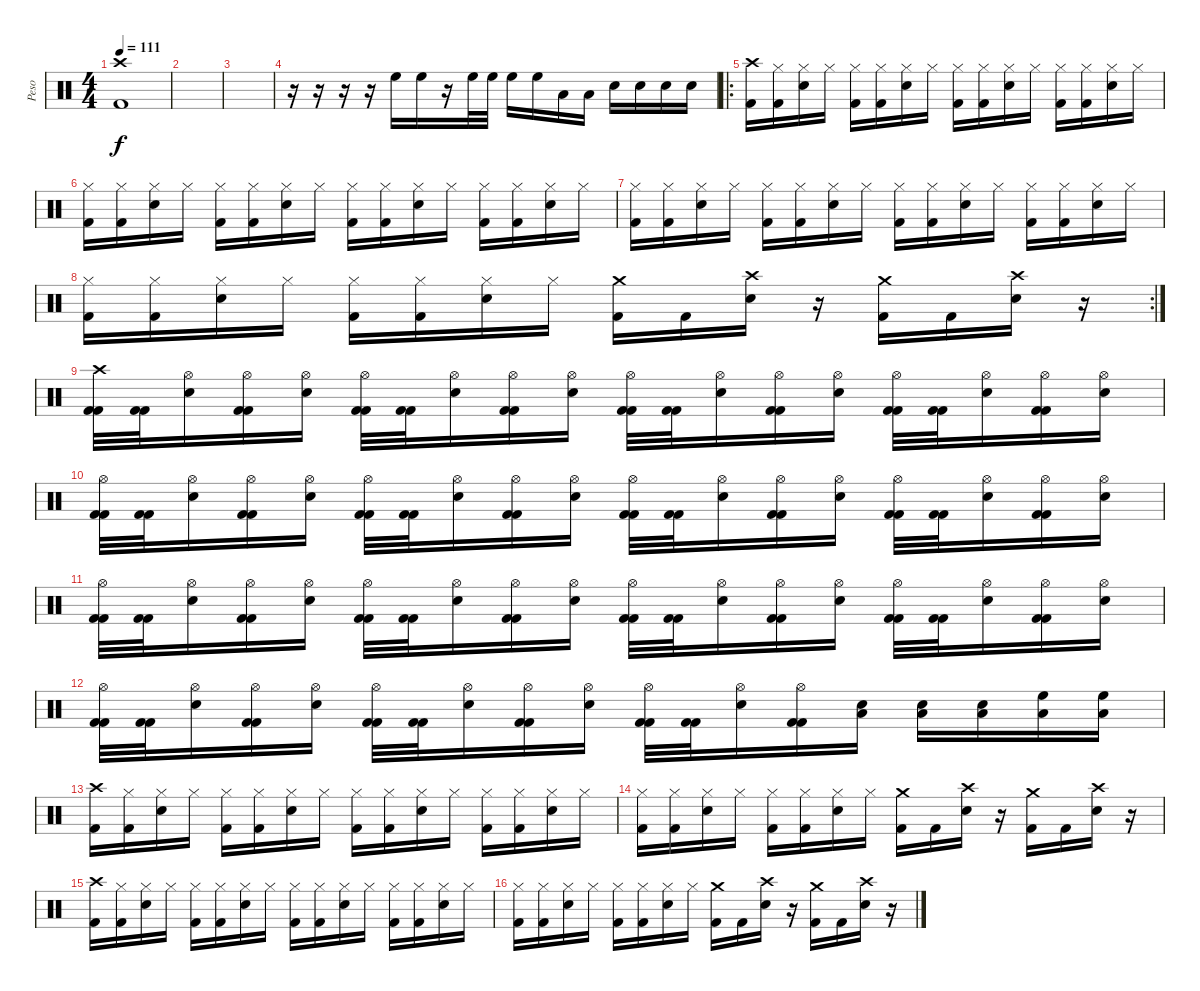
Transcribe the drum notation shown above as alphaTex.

\track ("Peso" "Peso") {instrument percussion}
\staff {score}
\articulation defaults
\ts (4 4)
\tempo 111
\clef neutral
\ks c
("Crash high (hit)" "Kick (hit) 2").1{dy f} |
|
|
r.16 r.16 r.16 r.16 "High Floor Tom (hit)".16 "High Floor Tom (hit)".16 r.16 "High Floor Tom (hit)".32 "High Floor Tom (hit)".32 "High Floor Tom (hit)".16 "High Floor Tom (hit)".16 "Low Floor Tom (hit)".16 "Low Floor Tom (hit)".16 "Snare (hit) 2".16 "Snare (hit) 2".16 "Snare (hit) 2".16 "Snare (hit) 2".16 |
\ro
("Crash high (hit)" "Kick (hit) 2").16 ("Hi-Hat (closed)" "Kick (hit) 2").16 ("Hi-Hat (closed)" "Snare (hit) 2").16 "Hi-Hat (closed)".16 ("Hi-Hat (closed)" "Kick (hit) 2").16 ("Hi-Hat (closed)" "Kick (hit) 2").16 ("Hi-Hat (closed)" "Snare (hit) 2").16 "Hi-Hat (closed)".16 ("Hi-Hat (closed)" "Kick (hit) 2").16 ("Hi-Hat (closed)" "Kick (hit) 2").16 ("Hi-Hat (closed)" "Snare (hit) 2").16 "Hi-Hat (closed)".16 ("Hi-Hat (closed)" "Kick (hit) 2").16 ("Hi-Hat (closed)" "Kick (hit) 2").16 ("Hi-Hat (closed)" "Snare (hit) 2").16 "Hi-Hat (closed)".16 |
("Hi-Hat (closed)" "Kick (hit) 2").16 ("Hi-Hat (closed)" "Kick (hit) 2").16 ("Hi-Hat (closed)" "Snare (hit) 2").16 "Hi-Hat (closed)".16 ("Hi-Hat (closed)" "Kick (hit) 2").16 ("Hi-Hat (closed)" "Kick (hit) 2").16 ("Hi-Hat (closed)" "Snare (hit) 2").16 "Hi-Hat (closed)".16 ("Hi-Hat (closed)" "Kick (hit) 2").16 ("Hi-Hat (closed)" "Kick (hit) 2").16 ("Hi-Hat (closed)" "Snare (hit) 2").16 "Hi-Hat (closed)".16 ("Hi-Hat (closed)" "Kick (hit) 2").16 ("Hi-Hat (closed)" "Kick (hit) 2").16 ("Hi-Hat (closed)" "Snare (hit) 2").16 "Hi-Hat (closed)".16 |
("Hi-Hat (closed)" "Kick (hit) 2").16 ("Hi-Hat (closed)" "Kick (hit) 2").16 ("Hi-Hat (closed)" "Snare (hit) 2").16 "Hi-Hat (closed)".16 ("Hi-Hat (closed)" "Kick (hit) 2").16 ("Hi-Hat (closed)" "Kick (hit) 2").16 ("Hi-Hat (closed)" "Snare (hit) 2").16 "Hi-Hat (closed)".16 ("Hi-Hat (closed)" "Kick (hit) 2").16 ("Hi-Hat (closed)" "Kick (hit) 2").16 ("Hi-Hat (closed)" "Snare (hit) 2").16 "Hi-Hat (closed)".16 ("Hi-Hat (closed)" "Kick (hit) 2").16 ("Hi-Hat (closed)" "Kick (hit) 2").16 ("Hi-Hat (closed)" "Snare (hit) 2").16 "Hi-Hat (closed)".16 |
\rc 2
("Hi-Hat (closed)" "Kick (hit) 2").16 ("Hi-Hat (closed)" "Kick (hit) 2").16 ("Hi-Hat (closed)" "Snare (hit) 2").16 "Hi-Hat (closed)".16 ("Hi-Hat (closed)" "Kick (hit) 2").16 ("Hi-Hat (closed)" "Kick (hit) 2").16 ("Hi-Hat (closed)" "Snare (hit) 2").16 "Hi-Hat (closed)".16 ("Crash medium (hit)" "Kick (hit) 2").16 "Kick (hit) 2".16 ("Crash high (hit)" "Snare (hit) 2").16 r.16 ("Crash medium (hit)" "Kick (hit) 2").16 "Kick (hit) 2".16 ("Crash high (hit)" "Snare (hit) 2").16 r.16 |
("Crash high (hit)" "Kick (hit) 2" "Kick (hit) 2").32 ("Kick (hit) 2" "Kick (hit) 2").32 ("Hi-Hat (open)" "Snare (hit) 2").16 ("Hi-Hat (open)" "Kick (hit) 2" "Kick (hit) 2").16 ("Hi-Hat (open)" "Snare (hit) 2").16 ("Hi-Hat (open)" "Kick (hit) 2" "Kick (hit) 2").32 ("Kick (hit) 2" "Kick (hit) 2").32 ("Hi-Hat (open)" "Snare (hit) 2").16 ("Hi-Hat (open)" "Kick (hit) 2" "Kick (hit) 2").16 ("Hi-Hat (open)" "Snare (hit) 2").16 ("Hi-Hat (open)" "Kick (hit) 2" "Kick (hit) 2").32 ("Kick (hit) 2" "Kick (hit) 2").32 ("Hi-Hat (open)" "Snare (hit) 2").16 ("Hi-Hat (open)" "Kick (hit) 2" "Kick (hit) 2").16 ("Hi-Hat (open)" "Snare (hit) 2").16 ("Hi-Hat (open)" "Kick (hit) 2" "Kick (hit) 2").32 ("Kick (hit) 2" "Kick (hit) 2").32 ("Hi-Hat (open)" "Snare (hit) 2").16 ("Hi-Hat (open)" "Kick (hit) 2" "Kick (hit) 2").16 ("Hi-Hat (open)" "Snare (hit) 2").16 |
("Hi-Hat (open)" "Kick (hit) 2" "Kick (hit) 2").32 ("Kick (hit) 2" "Kick (hit) 2").32 ("Hi-Hat (open)" "Snare (hit) 2").16 ("Hi-Hat (open)" "Kick (hit) 2" "Kick (hit) 2").16 ("Hi-Hat (open)" "Snare (hit) 2").16 ("Hi-Hat (open)" "Kick (hit) 2" "Kick (hit) 2").32 ("Kick (hit) 2" "Kick (hit) 2").32 ("Hi-Hat (open)" "Snare (hit) 2").16 ("Hi-Hat (open)" "Kick (hit) 2" "Kick (hit) 2").16 ("Hi-Hat (open)" "Snare (hit) 2").16 ("Hi-Hat (open)" "Kick (hit) 2" "Kick (hit) 2").32 ("Kick (hit) 2" "Kick (hit) 2").32 ("Hi-Hat (open)" "Snare (hit) 2").16 ("Hi-Hat (open)" "Kick (hit) 2" "Kick (hit) 2").16 ("Hi-Hat (open)" "Snare (hit) 2").16 ("Hi-Hat (open)" "Kick (hit) 2" "Kick (hit) 2").32 ("Kick (hit) 2" "Kick (hit) 2").32 ("Hi-Hat (open)" "Snare (hit) 2").16 ("Hi-Hat (open)" "Kick (hit) 2" "Kick (hit) 2").16 ("Hi-Hat (open)" "Snare (hit) 2").16 |
("Hi-Hat (open)" "Kick (hit) 2" "Kick (hit) 2").32 ("Kick (hit) 2" "Kick (hit) 2").32 ("Hi-Hat (open)" "Snare (hit) 2").16 ("Hi-Hat (open)" "Kick (hit) 2" "Kick (hit) 2").16 ("Hi-Hat (open)" "Snare (hit) 2").16 ("Hi-Hat (open)" "Kick (hit) 2" "Kick (hit) 2").32 ("Kick (hit) 2" "Kick (hit) 2").32 ("Hi-Hat (open)" "Snare (hit) 2").16 ("Hi-Hat (open)" "Kick (hit) 2" "Kick (hit) 2").16 ("Hi-Hat (open)" "Snare (hit) 2").16 ("Hi-Hat (open)" "Kick (hit) 2" "Kick (hit) 2").32 ("Kick (hit) 2" "Kick (hit) 2").32 ("Hi-Hat (open)" "Snare (hit) 2").16 ("Hi-Hat (open)" "Kick (hit) 2" "Kick (hit) 2").16 ("Hi-Hat (open)" "Snare (hit) 2").16 ("Hi-Hat (open)" "Kick (hit) 2" "Kick (hit) 2").32 ("Kick (hit) 2" "Kick (hit) 2").32 ("Hi-Hat (open)" "Snare (hit) 2").16 ("Hi-Hat (open)" "Kick (hit) 2" "Kick (hit) 2").16 ("Hi-Hat (open)" "Snare (hit) 2").16 |
("Hi-Hat (open)" "Kick (hit) 2" "Kick (hit) 2").32 ("Kick (hit) 2" "Kick (hit) 2").32 ("Hi-Hat (open)" "Snare (hit) 2").16 ("Hi-Hat (open)" "Kick (hit) 2" "Kick (hit) 2").16 ("Hi-Hat (open)" "Snare (hit) 2").16 ("Hi-Hat (open)" "Kick (hit) 2" "Kick (hit) 2").32 ("Kick (hit) 2" "Kick (hit) 2").32 ("Hi-Hat (open)" "Snare (hit) 2").16 ("Hi-Hat (open)" "Kick (hit) 2" "Kick (hit) 2").16 ("Hi-Hat (open)" "Snare (hit) 2").16 ("Hi-Hat (open)" "Kick (hit) 2" "Kick (hit) 2").32 ("Kick (hit) 2" "Kick (hit) 2").32 ("Hi-Hat (open)" "Snare (hit) 2").16 ("Hi-Hat (open)" "Kick (hit) 2" "Kick (hit) 2").16 ("Low Floor Tom (hit)" "Snare (hit) 2").16 ("Low Floor Tom (hit)" "Snare (hit) 2").16 ("Low Floor Tom (hit)" "Snare (hit) 2").16 ("Low Floor Tom (hit)" "High Floor Tom (hit)").16 ("Low Floor Tom (hit)" "High Floor Tom (hit)").16 |
("Crash high (hit)" "Kick (hit) 2").16 ("Hi-Hat (closed)" "Kick (hit) 2").16 ("Hi-Hat (closed)" "Snare (hit) 2").16 "Hi-Hat (closed)".16 ("Hi-Hat (closed)" "Kick (hit) 2").16 ("Hi-Hat (closed)" "Kick (hit) 2").16 ("Hi-Hat (closed)" "Snare (hit) 2").16 "Hi-Hat (closed)".16 ("Hi-Hat (closed)" "Kick (hit) 2").16 ("Hi-Hat (closed)" "Kick (hit) 2").16 ("Hi-Hat (closed)" "Snare (hit) 2").16 "Hi-Hat (closed)".16 ("Hi-Hat (closed)" "Kick (hit) 2").16 ("Hi-Hat (closed)" "Kick (hit) 2").16 ("Hi-Hat (closed)" "Snare (hit) 2").16 "Hi-Hat (closed)".16 |
("Hi-Hat (closed)" "Kick (hit) 2").16 ("Hi-Hat (closed)" "Kick (hit) 2").16 ("Hi-Hat (closed)" "Snare (hit) 2").16 "Hi-Hat (closed)".16 ("Hi-Hat (closed)" "Kick (hit) 2").16 ("Hi-Hat (closed)" "Kick (hit) 2").16 ("Hi-Hat (closed)" "Snare (hit) 2").16 "Hi-Hat (closed)".16 ("Crash medium (hit)" "Kick (hit) 2").16 "Kick (hit) 2".16 ("Crash high (hit)" "Snare (hit) 2").16 r.16 ("Crash medium (hit)" "Kick (hit) 2").16 "Kick (hit) 2".16 ("Crash high (hit)" "Snare (hit) 2").16 r.16 |
("Crash high (hit)" "Kick (hit) 2").16 ("Hi-Hat (closed)" "Kick (hit) 2").16 ("Hi-Hat (closed)" "Snare (hit) 2").16 "Hi-Hat (closed)".16 ("Hi-Hat (closed)" "Kick (hit) 2").16 ("Hi-Hat (closed)" "Kick (hit) 2").16 ("Hi-Hat (closed)" "Snare (hit) 2").16 "Hi-Hat (closed)".16 ("Hi-Hat (closed)" "Kick (hit) 2").16 ("Hi-Hat (closed)" "Kick (hit) 2").16 ("Hi-Hat (closed)" "Snare (hit) 2").16 "Hi-Hat (closed)".16 ("Hi-Hat (closed)" "Kick (hit) 2").16 ("Hi-Hat (closed)" "Kick (hit) 2").16 ("Hi-Hat (closed)" "Snare (hit) 2").16 "Hi-Hat (closed)".16 |
("Hi-Hat (closed)" "Kick (hit) 2").16 ("Hi-Hat (closed)" "Kick (hit) 2").16 ("Hi-Hat (closed)" "Snare (hit) 2").16 "Hi-Hat (closed)".16 ("Hi-Hat (closed)" "Kick (hit) 2").16 ("Hi-Hat (closed)" "Kick (hit) 2").16 ("Hi-Hat (closed)" "Snare (hit) 2").16 "Hi-Hat (closed)".16 ("Crash medium (hit)" "Kick (hit) 2").16 "Kick (hit) 2".16 ("Crash high (hit)" "Snare (hit) 2").16 r.16 ("Crash medium (hit)" "Kick (hit) 2").16 "Kick (hit) 2".16 ("Crash high (hit)" "Snare (hit) 2").16 r.16
